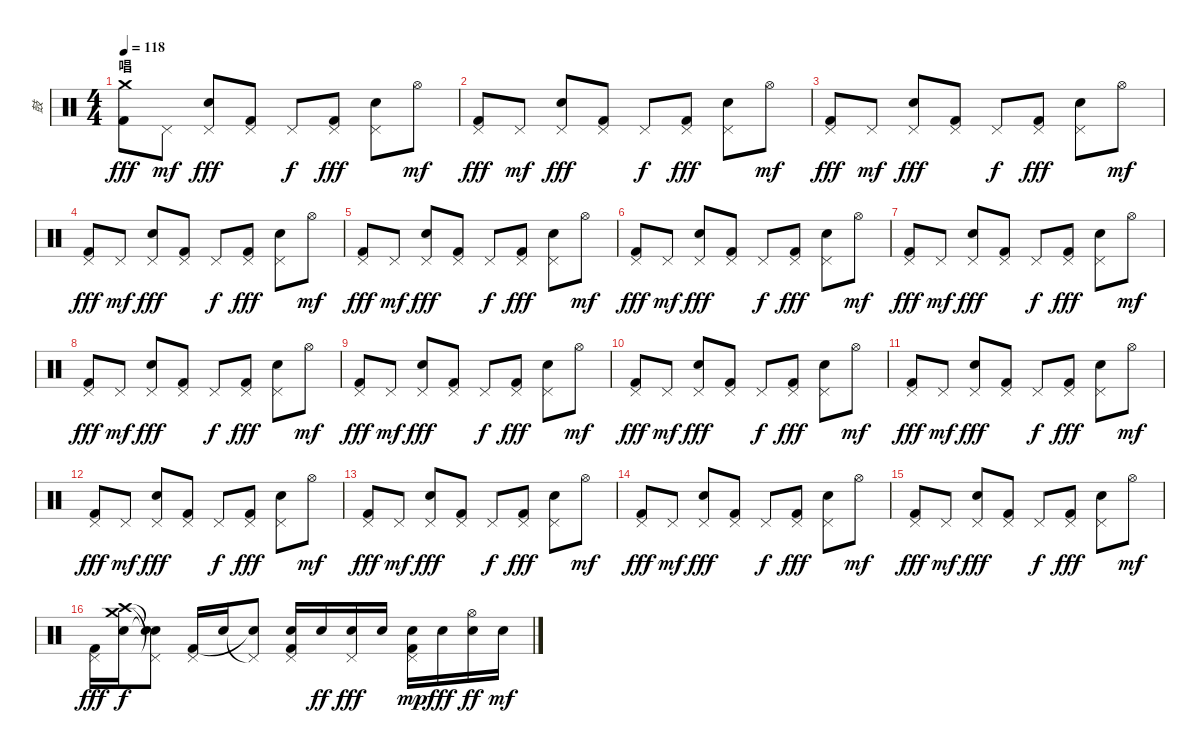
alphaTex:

\track ("鼓" "鼓") {instrument percussion}
\staff {score}
\articulation defaults
\ts (4 4)
\section ("" "唱")
\tempo 118
\clef neutral
\ks c
("Crash medium (hit)" "Kick (hit) 2").8{dy fff} "Pedal Hi-Hat (hit)".8{dy mf} ("Pedal Hi-Hat (hit)" "Snare (hit) 2").8{dy fff} ("Pedal Hi-Hat (hit)" "Kick (hit) 2").8 "Pedal Hi-Hat (hit)".8{dy f} ("Pedal Hi-Hat (hit)" "Kick (hit) 2").8{dy fff} ("Pedal Hi-Hat (hit)" "Snare (hit) 2").8 "Hi-Hat (open)".8{dy mf} |
("Pedal Hi-Hat (hit)" "Kick (hit) 2").8{dy fff} "Pedal Hi-Hat (hit)".8{dy mf} ("Pedal Hi-Hat (hit)" "Snare (hit) 2").8{dy fff} ("Pedal Hi-Hat (hit)" "Kick (hit) 2").8 "Pedal Hi-Hat (hit)".8{dy f} ("Pedal Hi-Hat (hit)" "Kick (hit) 2").8{dy fff} ("Pedal Hi-Hat (hit)" "Snare (hit) 2").8 "Hi-Hat (open)".8{dy mf} |
("Pedal Hi-Hat (hit)" "Kick (hit) 2").8{dy fff} "Pedal Hi-Hat (hit)".8{dy mf} ("Pedal Hi-Hat (hit)" "Snare (hit) 2").8{dy fff} ("Pedal Hi-Hat (hit)" "Kick (hit) 2").8 "Pedal Hi-Hat (hit)".8{dy f} ("Pedal Hi-Hat (hit)" "Kick (hit) 2").8{dy fff} ("Pedal Hi-Hat (hit)" "Snare (hit) 2").8 "Hi-Hat (open)".8{dy mf} |
("Pedal Hi-Hat (hit)" "Kick (hit) 2").8{dy fff} "Pedal Hi-Hat (hit)".8{dy mf} ("Pedal Hi-Hat (hit)" "Snare (hit) 2").8{dy fff} ("Pedal Hi-Hat (hit)" "Kick (hit) 2").8 "Pedal Hi-Hat (hit)".8{dy f} ("Pedal Hi-Hat (hit)" "Kick (hit) 2").8{dy fff} ("Pedal Hi-Hat (hit)" "Snare (hit) 2").8 "Hi-Hat (open)".8{dy mf} |
("Pedal Hi-Hat (hit)" "Kick (hit) 2").8{dy fff} "Pedal Hi-Hat (hit)".8{dy mf} ("Pedal Hi-Hat (hit)" "Snare (hit) 2").8{dy fff} ("Pedal Hi-Hat (hit)" "Kick (hit) 2").8 "Pedal Hi-Hat (hit)".8{dy f} ("Pedal Hi-Hat (hit)" "Kick (hit) 2").8{dy fff} ("Pedal Hi-Hat (hit)" "Snare (hit) 2").8 "Hi-Hat (open)".8{dy mf} |
("Pedal Hi-Hat (hit)" "Kick (hit) 2").8{dy fff} "Pedal Hi-Hat (hit)".8{dy mf} ("Pedal Hi-Hat (hit)" "Snare (hit) 2").8{dy fff} ("Pedal Hi-Hat (hit)" "Kick (hit) 2").8 "Pedal Hi-Hat (hit)".8{dy f} ("Pedal Hi-Hat (hit)" "Kick (hit) 2").8{dy fff} ("Pedal Hi-Hat (hit)" "Snare (hit) 2").8 "Hi-Hat (open)".8{dy mf} |
("Pedal Hi-Hat (hit)" "Kick (hit) 2").8{dy fff} "Pedal Hi-Hat (hit)".8{dy mf} ("Pedal Hi-Hat (hit)" "Snare (hit) 2").8{dy fff} ("Pedal Hi-Hat (hit)" "Kick (hit) 2").8 "Pedal Hi-Hat (hit)".8{dy f} ("Pedal Hi-Hat (hit)" "Kick (hit) 2").8{dy fff} ("Pedal Hi-Hat (hit)" "Snare (hit) 2").8 "Hi-Hat (open)".8{dy mf} |
("Pedal Hi-Hat (hit)" "Kick (hit) 2").8{dy fff} "Pedal Hi-Hat (hit)".8{dy mf} ("Pedal Hi-Hat (hit)" "Snare (hit) 2").8{dy fff} ("Pedal Hi-Hat (hit)" "Kick (hit) 2").8 "Pedal Hi-Hat (hit)".8{dy f} ("Pedal Hi-Hat (hit)" "Kick (hit) 2").8{dy fff} ("Pedal Hi-Hat (hit)" "Snare (hit) 2").8 "Hi-Hat (open)".8{dy mf} |
("Pedal Hi-Hat (hit)" "Kick (hit) 2").8{dy fff} "Pedal Hi-Hat (hit)".8{dy mf} ("Pedal Hi-Hat (hit)" "Snare (hit) 2").8{dy fff} ("Pedal Hi-Hat (hit)" "Kick (hit) 2").8 "Pedal Hi-Hat (hit)".8{dy f} ("Pedal Hi-Hat (hit)" "Kick (hit) 2").8{dy fff} ("Pedal Hi-Hat (hit)" "Snare (hit) 2").8 "Hi-Hat (open)".8{dy mf} |
("Pedal Hi-Hat (hit)" "Kick (hit) 2").8{dy fff} "Pedal Hi-Hat (hit)".8{dy mf} ("Pedal Hi-Hat (hit)" "Snare (hit) 2").8{dy fff} ("Pedal Hi-Hat (hit)" "Kick (hit) 2").8 "Pedal Hi-Hat (hit)".8{dy f} ("Pedal Hi-Hat (hit)" "Kick (hit) 2").8{dy fff} ("Pedal Hi-Hat (hit)" "Snare (hit) 2").8 "Hi-Hat (open)".8{dy mf} |
("Pedal Hi-Hat (hit)" "Kick (hit) 2").8{dy fff} "Pedal Hi-Hat (hit)".8{dy mf} ("Pedal Hi-Hat (hit)" "Snare (hit) 2").8{dy fff} ("Pedal Hi-Hat (hit)" "Kick (hit) 2").8 "Pedal Hi-Hat (hit)".8{dy f} ("Pedal Hi-Hat (hit)" "Kick (hit) 2").8{dy fff} ("Pedal Hi-Hat (hit)" "Snare (hit) 2").8 "Hi-Hat (open)".8{dy mf} |
("Pedal Hi-Hat (hit)" "Kick (hit) 2").8{dy fff} "Pedal Hi-Hat (hit)".8{dy mf} ("Pedal Hi-Hat (hit)" "Snare (hit) 2").8{dy fff} ("Pedal Hi-Hat (hit)" "Kick (hit) 2").8 "Pedal Hi-Hat (hit)".8{dy f} ("Pedal Hi-Hat (hit)" "Kick (hit) 2").8{dy fff} ("Pedal Hi-Hat (hit)" "Snare (hit) 2").8 "Hi-Hat (open)".8{dy mf} |
("Pedal Hi-Hat (hit)" "Kick (hit) 2").8{dy fff} "Pedal Hi-Hat (hit)".8{dy mf} ("Pedal Hi-Hat (hit)" "Snare (hit) 2").8{dy fff} ("Pedal Hi-Hat (hit)" "Kick (hit) 2").8 "Pedal Hi-Hat (hit)".8{dy f} ("Pedal Hi-Hat (hit)" "Kick (hit) 2").8{dy fff} ("Pedal Hi-Hat (hit)" "Snare (hit) 2").8 "Hi-Hat (open)".8{dy mf} |
("Pedal Hi-Hat (hit)" "Kick (hit) 2").8{dy fff} "Pedal Hi-Hat (hit)".8{dy mf} ("Pedal Hi-Hat (hit)" "Snare (hit) 2").8{dy fff} ("Pedal Hi-Hat (hit)" "Kick (hit) 2").8 "Pedal Hi-Hat (hit)".8{dy f} ("Pedal Hi-Hat (hit)" "Kick (hit) 2").8{dy fff} ("Pedal Hi-Hat (hit)" "Snare (hit) 2").8 "Hi-Hat (open)".8{dy mf} |
("Pedal Hi-Hat (hit)" "Kick (hit) 2").8{dy fff} "Pedal Hi-Hat (hit)".8{dy mf} ("Pedal Hi-Hat (hit)" "Snare (hit) 2").8{dy fff} ("Pedal Hi-Hat (hit)" "Kick (hit) 2").8 "Pedal Hi-Hat (hit)".8{dy f} ("Pedal Hi-Hat (hit)" "Kick (hit) 2").8{dy fff} ("Pedal Hi-Hat (hit)" "Snare (hit) 2").8 "Hi-Hat (open)".8{dy mf} |
("Pedal Hi-Hat (hit)" "Kick (hit) 2").16{dy fff} ("Crash medium (hit)" "Crash high (hit)" "Snare (hit) 2").16{dy f} ("Pedal Hi-Hat (hit)"{t} "Snare (hit)"{t} "Snare (hit) 2"{t}).8 ("Pedal Hi-Hat (hit)" "Kick (hit) 2").16 "Electric Snare (hit)".16 ("Pedal Hi-Hat (hit)"{t} "Snare (hit) 2"{t}).8 ("Pedal Hi-Hat (hit)" "Snare (hit) 2" "Kick (hit) 2").16 "Snare (hit) 2".16{dy ff} ("Pedal Hi-Hat (hit)" "Snare (hit) 2").16{dy fff} "Snare (hit) 2".16 ("Pedal Hi-Hat (hit)" "Snare (hit) 2" "Kick (hit) 2").16{dy mp} "Snare (hit) 2".16{dy fff} ("Hi-Hat (open)" "Snare (hit) 2").16{dy ff} "Snare (hit) 2".16{dy mf}
